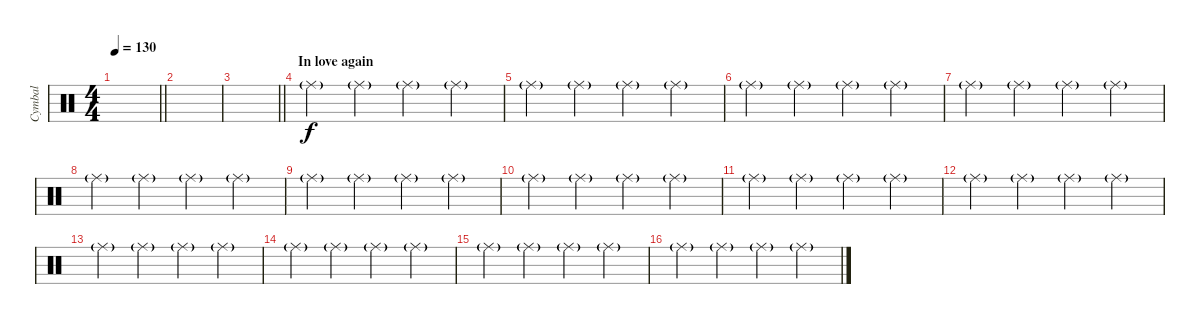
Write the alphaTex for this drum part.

\track ("Cymbal" "Cymbal") {instrument percussion}
\staff {score}
\articulation defaults
\ts (4 4)
\tempo 130
\clef neutral
\barLineRight lightlight
\ks c
|
|
\barLineRight lightlight
|
\section ("" "In love again")
"Ride (middle)"{g}.4 "Ride (middle)"{g}.4 "Ride (middle)"{g}.4 "Ride (middle)"{g}.4 |
"Ride (middle)"{g}.4 "Ride (middle)"{g}.4 "Ride (middle)"{g}.4 "Ride (middle)"{g}.4 |
"Ride (middle)"{g}.4 "Ride (middle)"{g}.4 "Ride (middle)"{g}.4 "Ride (middle)"{g}.4 |
"Ride (middle)"{g}.4 "Ride (middle)"{g}.4 "Ride (middle)"{g}.4 "Ride (middle)"{g}.4 |
"Ride (middle)"{g}.4 "Ride (middle)"{g}.4 "Ride (middle)"{g}.4 "Ride (middle)"{g}.4 |
"Ride (middle)"{g}.4 "Ride (middle)"{g}.4 "Ride (middle)"{g}.4 "Ride (middle)"{g}.4 |
"Ride (middle)"{g}.4 "Ride (middle)"{g}.4 "Ride (middle)"{g}.4 "Ride (middle)"{g}.4 |
"Ride (middle)"{g}.4 "Ride (middle)"{g}.4 "Ride (middle)"{g}.4 "Ride (middle)"{g}.4 |
"Ride (middle)"{g}.4 "Ride (middle)"{g}.4 "Ride (middle)"{g}.4 "Ride (middle)"{g}.4 |
"Ride (middle)"{g}.4 "Ride (middle)"{g}.4 "Ride (middle)"{g}.4 "Ride (middle)"{g}.4 |
"Ride (middle)"{g}.4 "Ride (middle)"{g}.4 "Ride (middle)"{g}.4 "Ride (middle)"{g}.4 |
"Ride (middle)"{g}.4 "Ride (middle)"{g}.4 "Ride (middle)"{g}.4 "Ride (middle)"{g}.4 |
"Ride (middle)"{g}.4 "Ride (middle)"{g}.4 "Ride (middle)"{g}.4 "Ride (middle)"{g}.4
